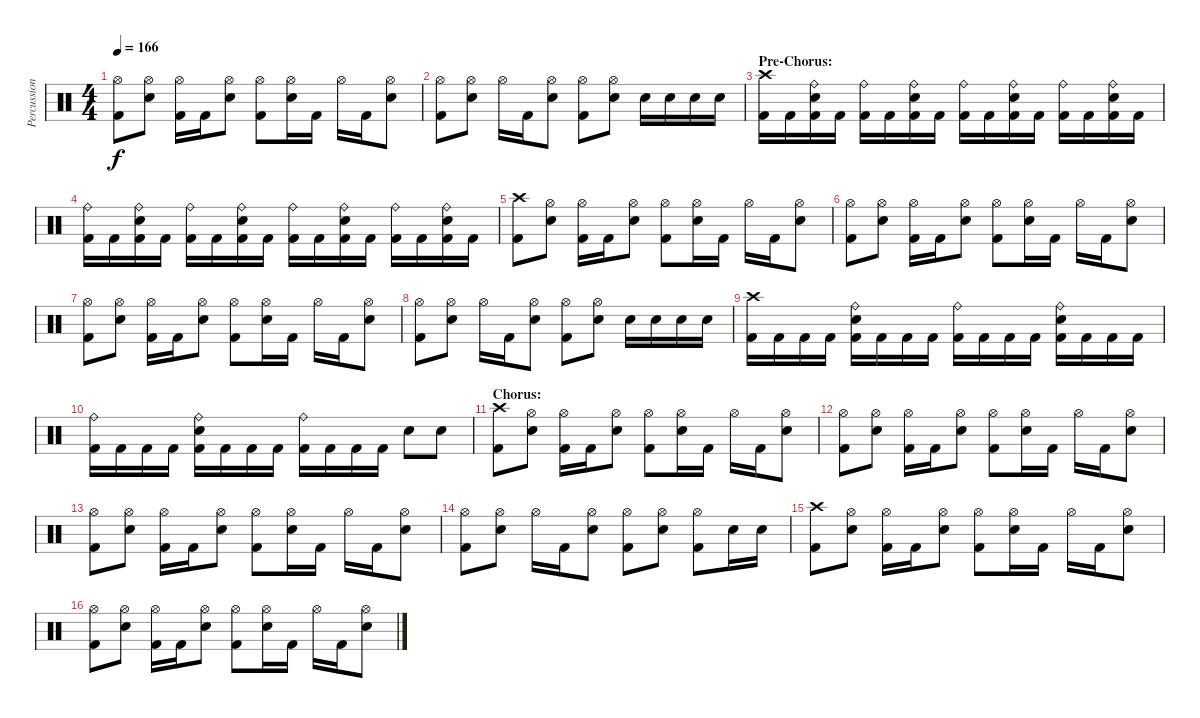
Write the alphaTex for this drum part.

\track ("Percussion" "Percussion") {instrument percussion}
\staff {score}
\articulation defaults
\ts (4 4)
\tempo 166
\clef neutral
\ks c
("Hi-Hat (open)" "Kick (hit) 2").8{dy f} ("Hi-Hat (open)" "Electric Snare (hit)").8 ("Hi-Hat (open)" "Kick (hit) 2").16 "Kick (hit) 2".16 ("Hi-Hat (open)" "Electric Snare (hit)").8 ("Hi-Hat (open)" "Kick (hit) 2").8 ("Hi-Hat (open)" "Electric Snare (hit)").16 "Kick (hit) 2".16 "Hi-Hat (open)".16 "Kick (hit) 2".16 ("Hi-Hat (open)" "Electric Snare (hit)").8 |
("Hi-Hat (open)" "Kick (hit) 2").8 ("Hi-Hat (open)" "Electric Snare (hit)").8 "Hi-Hat (open)".16 "Kick (hit) 2".16 ("Hi-Hat (open)" "Electric Snare (hit)").8 ("Hi-Hat (open)" "Kick (hit) 2").8 ("Hi-Hat (open)" "Electric Snare (hit)").8 "Electric Snare (hit)".16 "Electric Snare (hit)".16 "Electric Snare (hit)".16 "Electric Snare (hit)".16 |
\section ("" "Pre-Chorus:")
("Crash high (hit)" "Kick (hit) 2").16 "Kick (hit) 2".16 ("Ride (bell)" "Electric Snare (hit)" "Kick (hit) 2").16 "Kick (hit) 2".16 ("Ride (bell)" "Kick (hit) 2").16 "Kick (hit) 2".16 ("Ride (bell)" "Electric Snare (hit)" "Kick (hit) 2").16 "Kick (hit) 2".16 ("Ride (bell)" "Kick (hit) 2").16 "Kick (hit) 2".16 ("Ride (bell)" "Electric Snare (hit)" "Kick (hit) 2").16 "Kick (hit) 2".16 ("Ride (bell)" "Kick (hit) 2").16 "Kick (hit) 2".16 ("Ride (bell)" "Electric Snare (hit)" "Kick (hit) 2").16 "Kick (hit) 2".16 |
("Ride (bell)" "Kick (hit) 2").16 "Kick (hit) 2".16 ("Ride (bell)" "Electric Snare (hit)" "Kick (hit) 2").16 "Kick (hit) 2".16 ("Ride (bell)" "Kick (hit) 2").16 "Kick (hit) 2".16 ("Ride (bell)" "Electric Snare (hit)" "Kick (hit) 2").16 "Kick (hit) 2".16 ("Ride (bell)" "Kick (hit) 2").16 "Kick (hit) 2".16 ("Ride (bell)" "Electric Snare (hit)" "Kick (hit) 2").16 "Kick (hit) 2".16 ("Ride (bell)" "Kick (hit) 2").16 "Kick (hit) 2".16 ("Ride (bell)" "Electric Snare (hit)" "Kick (hit) 2").16 "Kick (hit) 2".16 |
("Crash high (hit)" "Kick (hit) 2").8 ("Hi-Hat (open)" "Electric Snare (hit)").8 ("Hi-Hat (open)" "Kick (hit) 2").16 "Kick (hit) 2".16 ("Hi-Hat (open)" "Electric Snare (hit)").8 ("Hi-Hat (open)" "Kick (hit) 2").8 ("Hi-Hat (open)" "Electric Snare (hit)").16 "Kick (hit) 2".16 "Hi-Hat (open)".16 "Kick (hit) 2".16 ("Hi-Hat (open)" "Electric Snare (hit)").8 |
("Hi-Hat (open)" "Kick (hit) 2").8 ("Hi-Hat (open)" "Electric Snare (hit)").8 ("Hi-Hat (open)" "Kick (hit) 2").16 "Kick (hit) 2".16 ("Hi-Hat (open)" "Electric Snare (hit)").8 ("Hi-Hat (open)" "Kick (hit) 2").8 ("Hi-Hat (open)" "Electric Snare (hit)").16 "Kick (hit) 2".16 "Hi-Hat (open)".16 "Kick (hit) 2".16 ("Hi-Hat (open)" "Electric Snare (hit)").8 |
("Hi-Hat (open)" "Kick (hit) 2").8 ("Hi-Hat (open)" "Electric Snare (hit)").8 ("Hi-Hat (open)" "Kick (hit) 2").16 "Kick (hit) 2".16 ("Hi-Hat (open)" "Electric Snare (hit)").8 ("Hi-Hat (open)" "Kick (hit) 2").8 ("Hi-Hat (open)" "Electric Snare (hit)").16 "Kick (hit) 2".16 "Hi-Hat (open)".16 "Kick (hit) 2".16 ("Hi-Hat (open)" "Electric Snare (hit)").8 |
("Hi-Hat (open)" "Kick (hit) 2").8 ("Hi-Hat (open)" "Electric Snare (hit)").8 "Hi-Hat (open)".16 "Kick (hit) 2".16 ("Hi-Hat (open)" "Electric Snare (hit)").8 ("Hi-Hat (open)" "Kick (hit) 2").8 ("Hi-Hat (open)" "Electric Snare (hit)").8 "Electric Snare (hit)".16 "Electric Snare (hit)".16 "Electric Snare (hit)".16 "Electric Snare (hit)".16 |
("Crash high (hit)" "Kick (hit) 2").16 "Kick (hit) 2".16 "Kick (hit) 2".16 "Kick (hit) 2".16 ("Ride (bell)" "Electric Snare (hit)" "Kick (hit) 2").16 "Kick (hit) 2".16 "Kick (hit) 2".16 "Kick (hit) 2".16 ("Ride (bell)" "Kick (hit) 2").16 "Kick (hit) 2".16 "Kick (hit) 2".16 "Kick (hit) 2".16 ("Ride (bell)" "Electric Snare (hit)" "Kick (hit) 2").16 "Kick (hit) 2".16 "Kick (hit) 2".16 "Kick (hit) 2".16 |
("Ride (bell)" "Kick (hit) 2").16 "Kick (hit) 2".16 "Kick (hit) 2".16 "Kick (hit) 2".16 ("Ride (bell)" "Electric Snare (hit)" "Kick (hit) 2").16 "Kick (hit) 2".16 "Kick (hit) 2".16 "Kick (hit) 2".16 ("Ride (bell)" "Kick (hit) 2").16 "Kick (hit) 2".16 "Kick (hit) 2".16 "Kick (hit) 2".16 "Electric Snare (hit)".8 "Electric Snare (hit)".8 |
\section ("" "Chorus:")
("Crash high (hit)" "Kick (hit) 2").8 ("Hi-Hat (open)" "Electric Snare (hit)").8 ("Hi-Hat (open)" "Kick (hit) 2").16 "Kick (hit) 2".16 ("Hi-Hat (open)" "Electric Snare (hit)").8 ("Hi-Hat (open)" "Kick (hit) 2").8 ("Hi-Hat (open)" "Electric Snare (hit)").16 "Kick (hit) 2".16 "Hi-Hat (open)".16 "Kick (hit) 2".16 ("Hi-Hat (open)" "Electric Snare (hit)").8 |
("Hi-Hat (open)" "Kick (hit) 2").8 ("Hi-Hat (open)" "Electric Snare (hit)").8 ("Hi-Hat (open)" "Kick (hit) 2").16 "Kick (hit) 2".16 ("Hi-Hat (open)" "Electric Snare (hit)").8 ("Hi-Hat (open)" "Kick (hit) 2").8 ("Hi-Hat (open)" "Electric Snare (hit)").16 "Kick (hit) 2".16 "Hi-Hat (open)".16 "Kick (hit) 2".16 ("Hi-Hat (open)" "Electric Snare (hit)").8 |
("Hi-Hat (open)" "Kick (hit) 2").8 ("Hi-Hat (open)" "Electric Snare (hit)").8 ("Hi-Hat (open)" "Kick (hit) 2").16 "Kick (hit) 2".16 ("Hi-Hat (open)" "Electric Snare (hit)").8 ("Hi-Hat (open)" "Kick (hit) 2").8 ("Hi-Hat (open)" "Electric Snare (hit)").16 "Kick (hit) 2".16 "Hi-Hat (open)".16 "Kick (hit) 2".16 ("Hi-Hat (open)" "Electric Snare (hit)").8 |
("Hi-Hat (open)" "Kick (hit) 2").8 ("Hi-Hat (open)" "Electric Snare (hit)").8 "Hi-Hat (open)".16 "Kick (hit) 2".16 ("Hi-Hat (open)" "Electric Snare (hit)").8 ("Hi-Hat (open)" "Kick (hit) 2").8 ("Hi-Hat (open)" "Electric Snare (hit)").8 ("Hi-Hat (open)" "Kick (hit) 2").8 "Electric Snare (hit)".16 "Electric Snare (hit)".16 |
("Crash high (hit)" "Kick (hit) 2").8 ("Hi-Hat (open)" "Electric Snare (hit)").8 ("Hi-Hat (open)" "Kick (hit) 2").16 "Kick (hit) 2".16 ("Hi-Hat (open)" "Electric Snare (hit)").8 ("Hi-Hat (open)" "Kick (hit) 2").8 ("Hi-Hat (open)" "Electric Snare (hit)").16 "Kick (hit) 2".16 "Hi-Hat (open)".16 "Kick (hit) 2".16 ("Hi-Hat (open)" "Electric Snare (hit)").8 |
("Hi-Hat (open)" "Kick (hit) 2").8 ("Hi-Hat (open)" "Electric Snare (hit)").8 ("Hi-Hat (open)" "Kick (hit) 2").16 "Kick (hit) 2".16 ("Hi-Hat (open)" "Electric Snare (hit)").8 ("Hi-Hat (open)" "Kick (hit) 2").8 ("Hi-Hat (open)" "Electric Snare (hit)").16 "Kick (hit) 2".16 "Hi-Hat (open)".16 "Kick (hit) 2".16 ("Hi-Hat (open)" "Electric Snare (hit)").8
